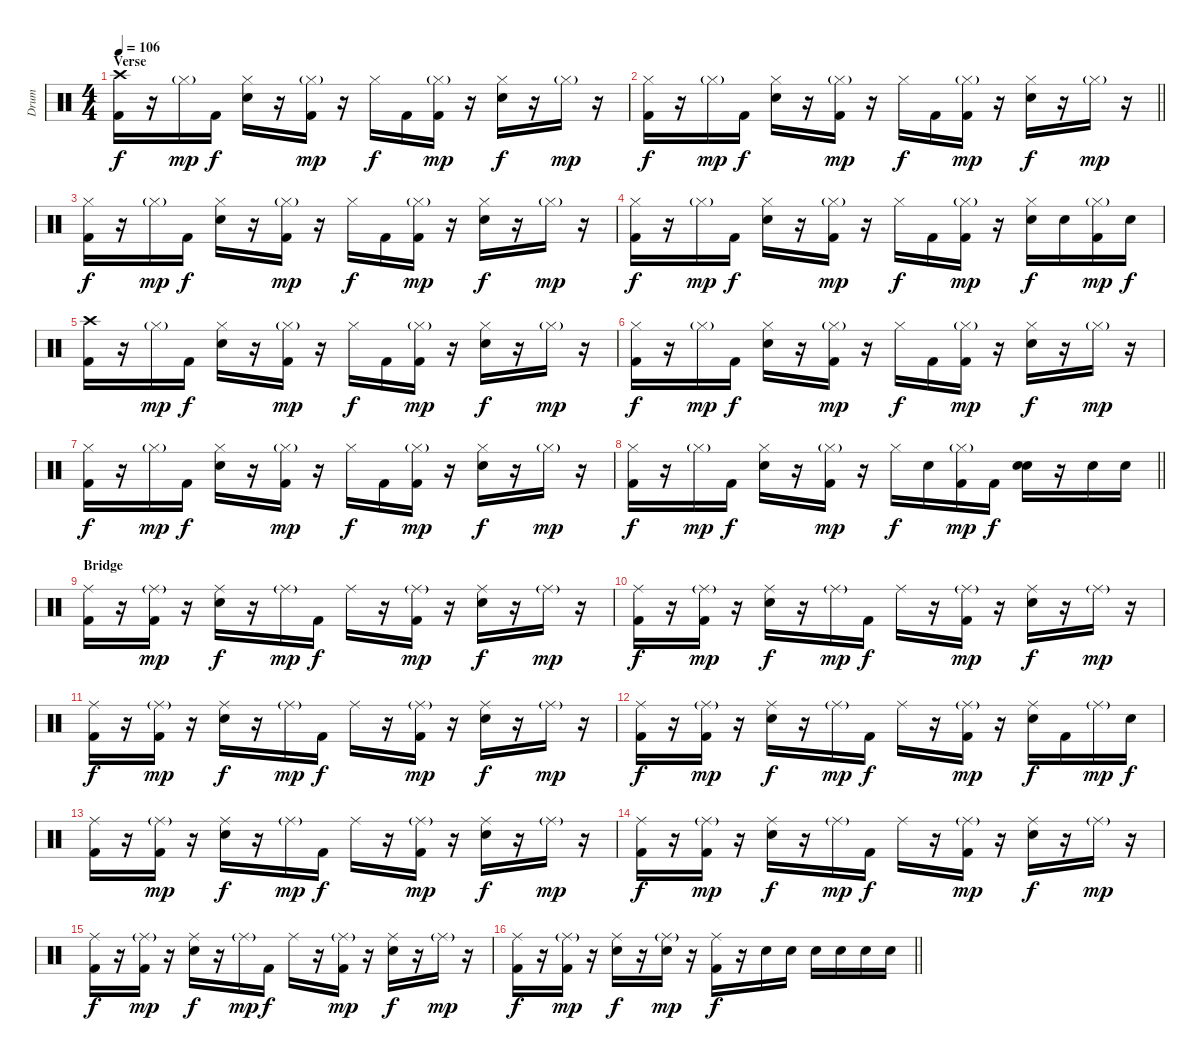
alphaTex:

\track ("Drum" "Drum") {instrument percussion}
\staff {score}
\articulation defaults
\ts (4 4)
\section ("" "Verse")
\tempo 106
\clef neutral
\ks c
("Crash high (hit)" "Kick (hit) 2").16{dy f} r.16 "Hi-Hat (closed)"{g}.16{dy mp} "Kick (hit) 2".16{dy f} ("Hi-Hat (closed)" "Electric Snare (hit)").16 r.16 ("Hi-Hat (closed)"{g} "Kick (hit) 2").16{dy mp} r.16 "Hi-Hat (closed)".16{dy f} "Kick (hit) 2".16 ("Hi-Hat (closed)"{g} "Kick (hit) 2").16{dy mp} r.16 ("Hi-Hat (closed)" "Electric Snare (hit)").16{dy f} r.16 "Hi-Hat (closed)"{g}.16{dy mp} r.16 |
\barLineRight lightlight
("Hi-Hat (closed)" "Kick (hit) 2").16{dy f} r.16 "Hi-Hat (closed)"{g}.16{dy mp} "Kick (hit) 2".16{dy f} ("Hi-Hat (closed)" "Electric Snare (hit)").16 r.16 ("Hi-Hat (closed)"{g} "Kick (hit) 2").16{dy mp} r.16 "Hi-Hat (closed)".16{dy f} "Kick (hit) 2".16 ("Hi-Hat (closed)"{g} "Kick (hit) 2").16{dy mp} r.16 ("Hi-Hat (closed)" "Electric Snare (hit)").16{dy f} r.16 "Hi-Hat (closed)"{g}.16{dy mp} r.16 |
("Hi-Hat (closed)" "Kick (hit) 2").16{dy f} r.16 "Hi-Hat (closed)"{g}.16{dy mp} "Kick (hit) 2".16{dy f} ("Hi-Hat (closed)" "Electric Snare (hit)").16 r.16 ("Hi-Hat (closed)"{g} "Kick (hit) 2").16{dy mp} r.16 "Hi-Hat (closed)".16{dy f} "Kick (hit) 2".16 ("Hi-Hat (closed)"{g} "Kick (hit) 2").16{dy mp} r.16 ("Hi-Hat (closed)" "Electric Snare (hit)").16{dy f} r.16 "Hi-Hat (closed)"{g}.16{dy mp} r.16 |
("Hi-Hat (closed)" "Kick (hit) 2").16{dy f} r.16 "Hi-Hat (closed)"{g}.16{dy mp} "Kick (hit) 2".16{dy f} ("Hi-Hat (closed)" "Electric Snare (hit)").16 r.16 ("Hi-Hat (closed)"{g} "Kick (hit) 2").16{dy mp} r.16 "Hi-Hat (closed)".16{dy f} "Kick (hit) 2".16 ("Hi-Hat (closed)"{g} "Kick (hit) 2").16{dy mp} r.16 ("Hi-Hat (closed)" "Electric Snare (hit)").16{dy f} "Electric Snare (hit)".16 ("Hi-Hat (closed)"{g} "Kick (hit) 2").16{dy mp} "Electric Snare (hit)".16{dy f} |
("Crash high (hit)" "Kick (hit) 2").16 r.16 "Hi-Hat (closed)"{g}.16{dy mp} "Kick (hit) 2".16{dy f} ("Hi-Hat (closed)" "Electric Snare (hit)").16 r.16 ("Hi-Hat (closed)"{g} "Kick (hit) 2").16{dy mp} r.16 "Hi-Hat (closed)".16{dy f} "Kick (hit) 2".16 ("Hi-Hat (closed)"{g} "Kick (hit) 2").16{dy mp} r.16 ("Hi-Hat (closed)" "Electric Snare (hit)").16{dy f} r.16 "Hi-Hat (closed)"{g}.16{dy mp} r.16 |
("Hi-Hat (closed)" "Kick (hit) 2").16{dy f} r.16 "Hi-Hat (closed)"{g}.16{dy mp} "Kick (hit) 2".16{dy f} ("Hi-Hat (closed)" "Electric Snare (hit)").16 r.16 ("Hi-Hat (closed)"{g} "Kick (hit) 2").16{dy mp} r.16 "Hi-Hat (closed)".16{dy f} "Kick (hit) 2".16 ("Hi-Hat (closed)"{g} "Kick (hit) 2").16{dy mp} r.16 ("Hi-Hat (closed)" "Electric Snare (hit)").16{dy f} r.16 "Hi-Hat (closed)"{g}.16{dy mp} r.16 |
("Hi-Hat (closed)" "Kick (hit) 2").16{dy f} r.16 "Hi-Hat (closed)"{g}.16{dy mp} "Kick (hit) 2".16{dy f} ("Hi-Hat (closed)" "Electric Snare (hit)").16 r.16 ("Hi-Hat (closed)"{g} "Kick (hit) 2").16{dy mp} r.16 "Hi-Hat (closed)".16{dy f} "Kick (hit) 2".16 ("Hi-Hat (closed)"{g} "Kick (hit) 2").16{dy mp} r.16 ("Hi-Hat (closed)" "Electric Snare (hit)").16{dy f} r.16 "Hi-Hat (closed)"{g}.16{dy mp} r.16 |
\barLineRight lightlight
("Hi-Hat (closed)" "Kick (hit) 2").16{dy f} r.16 "Hi-Hat (closed)"{g}.16{dy mp} "Kick (hit) 2".16{dy f} ("Hi-Hat (closed)" "Electric Snare (hit)").16 r.16 ("Hi-Hat (closed)"{g} "Kick (hit) 2").16{dy mp} r.16 "Hi-Hat (closed)".16{dy f} "Electric Snare (hit)".16 ("Hi-Hat (closed)"{g} "Kick (hit) 2").16{dy mp} "Kick (hit) 2".16{dy f} ("Electric Snare (hit)" "Electric Snare (hit)").16{bd 120} r.16 "Electric Snare (hit)".16 "Electric Snare (hit)".16 |
\section ("" "Bridge")
("Ride (middle)" "Kick (hit) 2").16 r.16 ("Ride (middle)"{g} "Kick (hit) 2").16{dy mp} r.16 ("Ride (middle)" "Electric Snare (hit)").16{dy f} r.16 "Ride (middle)"{g}.16{dy mp} "Kick (hit) 2".16{dy f} "Ride (middle)".16 r.16 ("Ride (middle)"{g} "Kick (hit) 2").16{dy mp} r.16 ("Ride (middle)" "Electric Snare (hit)").16{dy f} r.16 "Ride (middle)"{g}.16{dy mp} r.16 |
("Ride (middle)" "Kick (hit) 2").16{dy f} r.16 ("Ride (middle)"{g} "Kick (hit) 2").16{dy mp} r.16 ("Ride (middle)" "Electric Snare (hit)").16{dy f} r.16 "Ride (middle)"{g}.16{dy mp} "Kick (hit) 2".16{dy f} "Ride (middle)".16 r.16 ("Ride (middle)"{g} "Kick (hit) 2").16{dy mp} r.16 ("Ride (middle)" "Electric Snare (hit)").16{dy f} r.16 "Ride (middle)"{g}.16{dy mp} r.16 |
("Ride (middle)" "Kick (hit) 2").16{dy f} r.16 ("Ride (middle)"{g} "Kick (hit) 2").16{dy mp} r.16 ("Ride (middle)" "Electric Snare (hit)").16{dy f} r.16 "Ride (middle)"{g}.16{dy mp} "Kick (hit) 2".16{dy f} "Ride (middle)".16 r.16 ("Ride (middle)"{g} "Kick (hit) 2").16{dy mp} r.16 ("Ride (middle)" "Electric Snare (hit)").16{dy f} r.16 "Ride (middle)"{g}.16{dy mp} r.16 |
("Ride (middle)" "Kick (hit) 2").16{dy f} r.16 ("Ride (middle)"{g} "Kick (hit) 2").16{dy mp} r.16 ("Ride (middle)" "Electric Snare (hit)").16{dy f} r.16 "Ride (middle)"{g}.16{dy mp} "Kick (hit) 2".16{dy f} "Ride (middle)".16 r.16 ("Ride (middle)"{g} "Kick (hit) 2").16{dy mp} r.16 ("Ride (middle)" "Electric Snare (hit)").16{dy f} "Kick (hit) 2".16 "Ride (middle)"{g}.16{dy mp} "Electric Snare (hit)".16{dy f} |
("Ride (middle)" "Kick (hit) 2").16 r.16 ("Ride (middle)"{g} "Kick (hit) 2").16{dy mp} r.16 ("Ride (middle)" "Electric Snare (hit)").16{dy f} r.16 "Ride (middle)"{g}.16{dy mp} "Kick (hit) 2".16{dy f} "Ride (middle)".16 r.16 ("Ride (middle)"{g} "Kick (hit) 2").16{dy mp} r.16 ("Ride (middle)" "Electric Snare (hit)").16{dy f} r.16 "Ride (middle)"{g}.16{dy mp} r.16 |
("Ride (middle)" "Kick (hit) 2").16{dy f} r.16 ("Ride (middle)"{g} "Kick (hit) 2").16{dy mp} r.16 ("Ride (middle)" "Electric Snare (hit)").16{dy f} r.16 "Ride (middle)"{g}.16{dy mp} "Kick (hit) 2".16{dy f} "Ride (middle)".16 r.16 ("Ride (middle)"{g} "Kick (hit) 2").16{dy mp} r.16 ("Ride (middle)" "Electric Snare (hit)").16{dy f} r.16 "Ride (middle)"{g}.16{dy mp} r.16 |
("Ride (middle)" "Kick (hit) 2").16{dy f} r.16 ("Ride (middle)"{g} "Kick (hit) 2").16{dy mp} r.16 ("Ride (middle)" "Electric Snare (hit)").16{dy f} r.16 "Ride (middle)"{g}.16{dy mp} "Kick (hit) 2".16{dy f} "Ride (middle)".16 r.16 ("Ride (middle)"{g} "Kick (hit) 2").16{dy mp} r.16 ("Ride (middle)" "Electric Snare (hit)").16{dy f} r.16 "Ride (middle)"{g}.16{dy mp} r.16 |
\barLineRight lightlight
("Ride (middle)" "Kick (hit) 2").16{dy f} r.16 ("Ride (middle)"{g} "Kick (hit) 2").16{dy mp} r.16 ("Ride (middle)" "Electric Snare (hit)").16{dy f} r.16 ("Ride (middle)"{g} "Electric Snare (hit)").16{dy mp} r.16 ("Ride (middle)" "Kick (hit) 2").16{dy f} r.16 "Electric Snare (hit)".16 "Electric Snare (hit)".16 "Electric Snare (hit)".16 "Electric Snare (hit)".16 "Electric Snare (hit)".16 "Electric Snare (hit)".16
